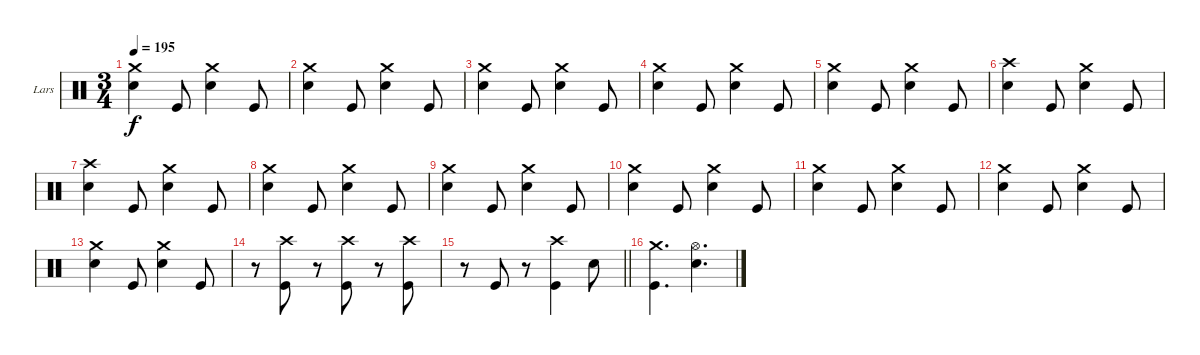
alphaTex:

\bracketExtendMode groupsimilarinstruments
\firstSystemTrackNameOrientation horizontal
\otherSystemsTrackNameOrientation horizontal
\track ("Drumkit" "Lars") {instrument percussion}
\staff {score}
\articulation defaults
\ts (3 4)
\tempo 195
\clef neutral
\ks c
("Crash medium (hit)" "Snare (hit) 2").4{dy f} "Kick (hit)".8 ("Crash medium (hit)" "Snare (hit) 2").4 "Kick (hit)".8 |
("Crash medium (hit)" "Snare (hit) 2").4 "Kick (hit)".8 ("Crash medium (hit)" "Snare (hit) 2").4 "Kick (hit)".8 |
("Crash medium (hit)" "Snare (hit) 2").4 "Kick (hit)".8 ("Crash medium (hit)" "Snare (hit) 2").4 "Kick (hit)".8 |
("Crash medium (hit)" "Snare (hit) 2").4 "Kick (hit)".8 ("Crash medium (hit)" "Snare (hit) 2").4 "Kick (hit)".8 |
("Crash medium (hit)" "Snare (hit) 2").4 "Kick (hit)".8 ("Crash medium (hit)" "Snare (hit) 2").4 "Kick (hit)".8 |
("Crash high (hit)" "Snare (hit) 2").4 "Kick (hit)".8 ("Crash medium (hit)" "Snare (hit) 2").4 "Kick (hit)".8 |
("Crash high (hit)" "Snare (hit) 2").4 "Kick (hit)".8 ("Crash medium (hit)" "Snare (hit) 2").4 "Kick (hit)".8 |
("Crash medium (hit)" "Snare (hit) 2").4 "Kick (hit)".8 ("Crash medium (hit)" "Snare (hit) 2").4 "Kick (hit)".8 |
("Crash medium (hit)" "Snare (hit) 2").4 "Kick (hit)".8 ("Crash medium (hit)" "Snare (hit) 2").4 "Kick (hit)".8 |
("Crash medium (hit)" "Snare (hit) 2").4 "Kick (hit)".8 ("Crash medium (hit)" "Snare (hit) 2").4 "Kick (hit)".8 |
("Crash medium (hit)" "Snare (hit) 2").4 "Kick (hit)".8 ("Crash medium (hit)" "Snare (hit) 2").4 "Kick (hit)".8 |
("Crash medium (hit)" "Snare (hit) 2").4 "Kick (hit)".8 ("Crash medium (hit)" "Snare (hit) 2").4 "Kick (hit)".8 |
("Crash medium (hit)" "Snare (hit) 2").4 "Kick (hit)".8 ("Crash medium (hit)" "Snare (hit) 2").4 "Kick (hit)".8 |
r.8 ("Crash high (hit)" "Kick (hit)").8 r.8 ("Crash high (hit)" "Kick (hit)").8 r.8 ("Crash high (hit)" "Kick (hit)").8 |
\barLineRight lightlight
r.8 "Kick (hit)".8 r.8 ("Crash high (hit)" "Kick (hit)").4 "Snare (hit) 2".8 |
("Crash medium (hit)" "Kick (hit)").4{d} ("Hi-Hat (open)" "Snare (hit) 2").4{d}
